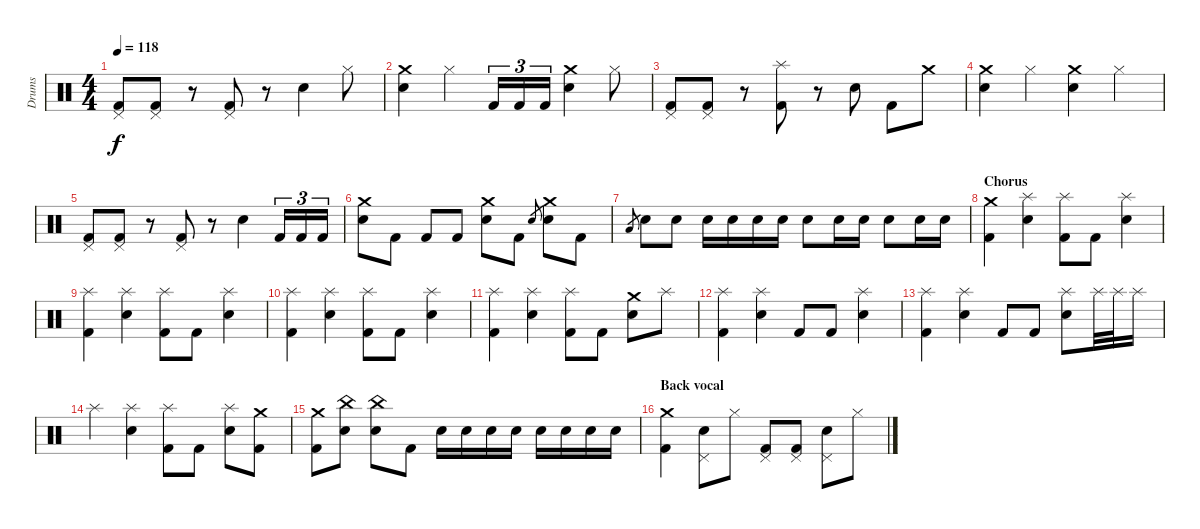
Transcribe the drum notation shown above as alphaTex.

\track ("Drums" "Drums") {instrument percussion}
\staff {score}
\articulation defaults
\ts (4 4)
\tempo 118
\clef neutral
\ks c
("Pedal Hi-Hat (hit)" "Kick (hit) 2").8{dy f} ("Pedal Hi-Hat (hit)" "Kick (hit) 2").8 r.8 ("Pedal Hi-Hat (hit)" "Kick (hit) 2").8 r.8 "Electric Snare (hit)".4 "Hi-Hat (closed)".8 |
("Crash medium (hit)" "Snare (hit) 2").4 "Hi-Hat (closed)".4 "Kick (hit) 2".16{tu (3 2)} "Kick (hit) 2".16{tu (3 2)} "Kick (hit) 2".16{tu (3 2)} ("Crash medium (hit)" "Electric Snare (hit)").4 "Hi-Hat (closed)".8 |
("Pedal Hi-Hat (hit)" "Kick (hit) 2").8 ("Pedal Hi-Hat (hit)" "Kick (hit) 2").8 r.8 ("Splash (hit)" "Kick (hit) 2").8 r.8 "Electric Snare (hit)".8 "Kick (hit) 2".8 "Crash medium (hit)".8 |
("Crash medium (hit)" "Snare (hit) 2").4 "Hi-Hat (closed)".4 ("Crash medium (hit)" "Electric Snare (hit)").4 "Hi-Hat (closed)".4 |
("Pedal Hi-Hat (hit)" "Kick (hit) 2").8 ("Pedal Hi-Hat (hit)" "Kick (hit) 2").8 r.8 ("Pedal Hi-Hat (hit)" "Kick (hit) 2").8 r.8 "Electric Snare (hit)".4 "Kick (hit) 2".16{tu (3 2)} "Kick (hit) 2".16{tu (3 2)} "Kick (hit) 2".16{tu (3 2)} |
("Crash medium (hit)" "Electric Snare (hit)").8 "Kick (hit) 2".8 "Kick (hit) 2".8 "Kick (hit) 2".8 ("Crash medium (hit)" "Electric Snare (hit)").8 "Kick (hit) 2".8 "Electric Snare (hit)".8{gr} ("Crash medium (hit)" "Electric Snare (hit)").8 "Kick (hit) 2".8 |
"Low Tom (hit)".8{gr} "Electric Snare (hit)".8 "Electric Snare (hit)".8 "Electric Snare (hit)".16 "Electric Snare (hit)".16 "Electric Snare (hit)".16 "Electric Snare (hit)".16 "Electric Snare (hit)".8 "Electric Snare (hit)".16 "Electric Snare (hit)".16 "Electric Snare (hit)".8 "Electric Snare (hit)".16 "Electric Snare (hit)".16 |
\section ("" "Chorus")
("Crash medium (hit)" "Kick (hit) 2").4 ("Splash (hit)" "Electric Snare (hit)").4 ("Splash (hit)" "Kick (hit) 2").8 "Kick (hit) 2".8 ("Splash (hit)" "Electric Snare (hit)").4 |
("Splash (hit)" "Kick (hit) 2").4 ("Splash (hit)" "Electric Snare (hit)").4 ("Splash (hit)" "Kick (hit) 2").8 "Kick (hit) 2".8 ("Splash (hit)" "Electric Snare (hit)").4 |
("Splash (hit)" "Kick (hit) 2").4 ("Splash (hit)" "Electric Snare (hit)").4 ("Splash (hit)" "Kick (hit) 2").8 "Kick (hit) 2".8 ("Splash (hit)" "Electric Snare (hit)").4 |
("Splash (hit)" "Kick (hit) 2").4 ("Splash (hit)" "Electric Snare (hit)").4 ("Splash (hit)" "Kick (hit) 2").8 "Kick (hit) 2".8 ("Crash medium (hit)" "Electric Snare (hit)").8 "Splash (hit)".8 |
("Splash (hit)" "Kick (hit) 2").4 ("Splash (hit)" "Electric Snare (hit)").4 "Kick (hit) 2".8 "Kick (hit) 2".8 ("Splash (hit)" "Electric Snare (hit)").4 |
("Splash (hit)" "Kick (hit) 2").4 ("Splash (hit)" "Electric Snare (hit)").4 "Kick (hit) 2".8 "Kick (hit) 2".8 ("Splash (hit)" "Electric Snare (hit)").8 "Splash (hit)".32 "Splash (hit)".32 "Splash (hit)".16 |
"Splash (hit)".4 ("Splash (hit)" "Electric Snare (hit)").4 ("Splash (hit)" "Kick (hit) 2").8 "Kick (hit) 2".8 ("Splash (hit)" "Electric Snare (hit)").8 ("Crash medium (hit)" "Kick (hit) 2").8 |
("Crash medium (hit)" "Kick (hit) 2").8 ("China (hit)" "Electric Snare (hit)").8 ("China (hit)" "Electric Snare (hit)").8 "Kick (hit) 2".8 "Electric Snare (hit)".16 "Electric Snare (hit)".16 "Electric Snare (hit)".16 "Electric Snare (hit)".16 "Electric Snare (hit)".16 "Electric Snare (hit)".16 "Electric Snare (hit)".16 "Electric Snare (hit)".16 |
\section ("" "Back vocal")
("Crash medium (hit)" "Kick (hit) 2").4 ("Pedal Hi-Hat (hit)" "Electric Snare (hit)").8 "Hi-Hat (closed)".8 ("Pedal Hi-Hat (hit)" "Kick (hit) 2").8 ("Pedal Hi-Hat (hit)" "Kick (hit) 2").8 ("Pedal Hi-Hat (hit)" "Electric Snare (hit)").8 "Hi-Hat (closed)".8
